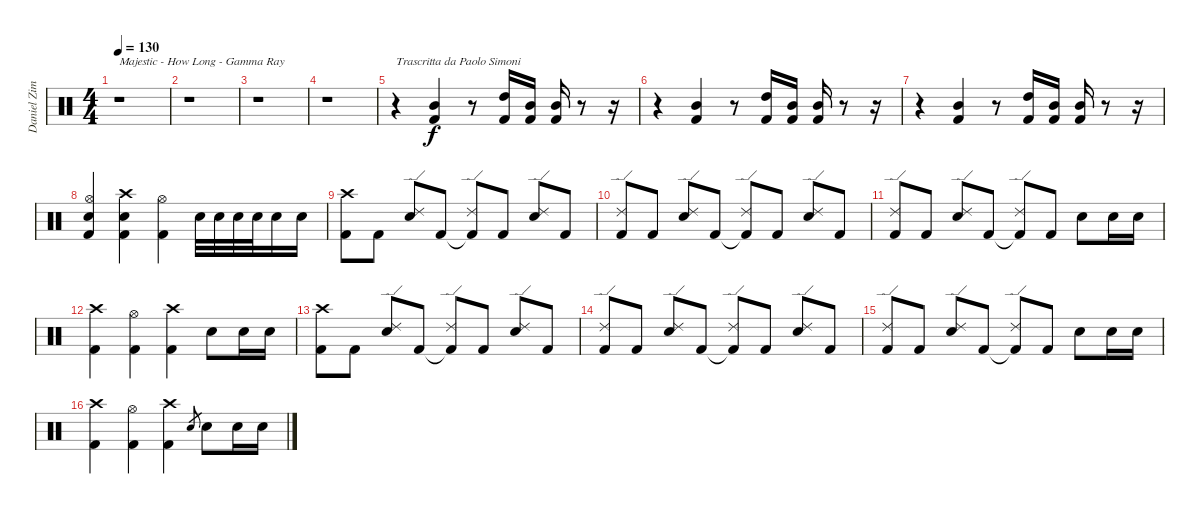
\track ("Daniel Zimmermann" "Daniel Zim") {instrument percussion}
\staff {score}
\articulation defaults
\ts (4 4)
\tempo 130
\clef neutral
\ks c
r.1{txt "Majestic - How Long - Gamma Ray" dy f} |
r.1 |
r.1 |
r.1 |
r.4{txt "Trascritta da Paolo Simoni"} ("Kick (hit) 2" "Mid Tom (hit)").4 r.8 ("Kick (hit) 2" "High Tom (hit)").16 ("Kick (hit) 2" "Mid Tom (hit)").16 ("Kick (hit) 2" "Mid Tom (hit)").16 r.8 r.16 |
r.4 ("Kick (hit) 2" "Mid Tom (hit)").4 r.8 ("Kick (hit) 2" "High Tom (hit)").16 ("Kick (hit) 2" "Mid Tom (hit)").16 ("Kick (hit) 2" "Mid Tom (hit)").16 r.8 r.16 |
r.4 ("Kick (hit) 2" "Mid Tom (hit)").4 r.8 ("Kick (hit) 2" "High Tom (hit)").16 ("Kick (hit) 2" "Mid Tom (hit)").16 ("Kick (hit) 2" "Mid Tom (hit)").16 r.8 r.16 |
("Kick (hit) 2" "Hi-Hat (open)" "Electric Snare (hit)").4 ("Kick (hit) 2" "Crash high (hit)" "Electric Snare (hit)").4 ("Kick (hit) 2" "Hi-Hat (open)").4 "Electric Snare (hit)".32 "Electric Snare (hit)".32 "Electric Snare (hit)".32 "Electric Snare (hit)".32 "Electric Snare (hit)".16 "Electric Snare (hit)".16 |
("Kick (hit) 2" "Crash high (hit)").8 "Kick (hit) 2".8 ("Electric Snare (hit)" "Ride (edge) 2").8 "Kick (hit) 2".8 ("Kick (hit) 2"{t} "Ride (edge) 2").8 "Kick (hit) 2".8 ("Electric Snare (hit)" "Ride (edge) 2").8 "Kick (hit) 2".8 |
("Kick (hit) 2" "Ride (edge) 2").8 "Kick (hit) 2".8 ("Electric Snare (hit)" "Ride (edge) 2").8 "Kick (hit) 2".8 ("Kick (hit) 2"{t} "Ride (edge) 2").8 "Kick (hit) 2".8 ("Electric Snare (hit)" "Ride (edge) 2").8 "Kick (hit) 2".8 |
("Kick (hit) 2" "Ride (edge) 2").8 "Kick (hit) 2".8 ("Electric Snare (hit)" "Ride (edge) 2").8 "Kick (hit) 2".8 ("Kick (hit) 2"{t} "Ride (edge) 2").8 "Kick (hit) 2".8 "Electric Snare (hit)".8 "Electric Snare (hit)".16 "Electric Snare (hit)".16 |
("Kick (hit) 2" "Crash high (hit)").4 ("Kick (hit) 2" "Hi-Hat (open)").4 ("Kick (hit) 2" "Crash high (hit)").4 "Electric Snare (hit)".8 "Electric Snare (hit)".16 "Electric Snare (hit)".16 |
("Kick (hit) 2" "Crash high (hit)").8 "Kick (hit) 2".8 ("Electric Snare (hit)" "Ride (edge) 2").8 "Kick (hit) 2".8 ("Kick (hit) 2"{t} "Ride (edge) 2").8 "Kick (hit) 2".8 ("Electric Snare (hit)" "Ride (edge) 2").8 "Kick (hit) 2".8 |
("Kick (hit) 2" "Ride (edge) 2").8 "Kick (hit) 2".8 ("Electric Snare (hit)" "Ride (edge) 2").8 "Kick (hit) 2".8 ("Kick (hit) 2"{t} "Ride (edge) 2").8 "Kick (hit) 2".8 ("Electric Snare (hit)" "Ride (edge) 2").8 "Kick (hit) 2".8 |
("Kick (hit) 2" "Ride (edge) 2").8 "Kick (hit) 2".8 ("Electric Snare (hit)" "Ride (edge) 2").8 "Kick (hit) 2".8 ("Kick (hit) 2"{t} "Ride (edge) 2").8 "Kick (hit) 2".8 "Electric Snare (hit)".8 "Electric Snare (hit)".16 "Electric Snare (hit)".16 |
("Kick (hit) 2" "Crash high (hit)").4 ("Kick (hit) 2" "Hi-Hat (open)").4 ("Kick (hit) 2" "Crash high (hit)").4 "Electric Snare (hit)".8{gr} "Electric Snare (hit)".8 "Electric Snare (hit)".16 "Electric Snare (hit)".16
